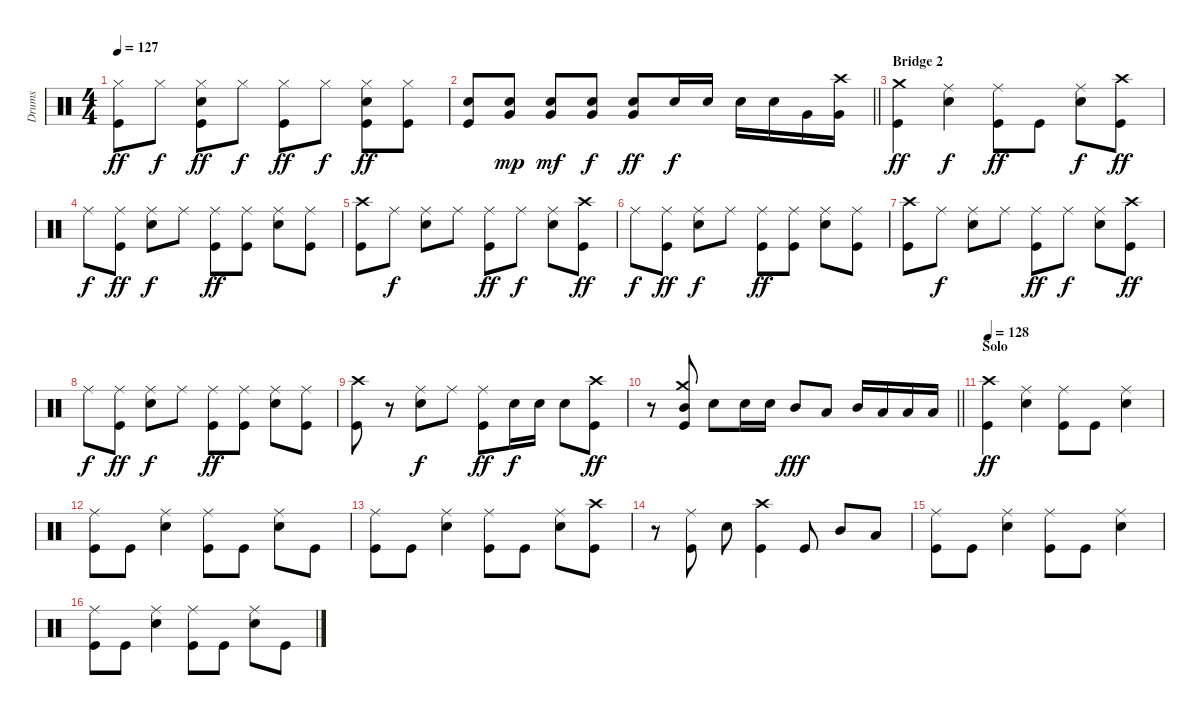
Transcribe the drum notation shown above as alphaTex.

\track ("Drums" "Drums") {instrument percussion}
\staff {score}
\articulation defaults
\ts (4 4)
\tempo 127
\clef neutral
\ks c
("Hi-Hat (closed)" "Kick (hit)").8{dy ff} "Hi-Hat (closed)".8{dy f} ("Hi-Hat (closed)" "Electric Snare (hit)" "Kick (hit)").8{dy ff} "Hi-Hat (closed)".8{dy f} ("Hi-Hat (closed)" "Kick (hit)").8{dy ff} "Hi-Hat (closed)".8{dy f} ("Hi-Hat (closed)" "Electric Snare (hit)" "Kick (hit)").8{dy ff} ("Hi-Hat (closed)" "Kick (hit)").8 |
\barLineRight lightlight
("Electric Snare (hit)" "Kick (hit)").8 ("Electric Snare (hit)" "Very Low Tom (hit)").8{dy mp} ("Electric Snare (hit)" "Very Low Tom (hit)").8{dy mf} ("Electric Snare (hit)" "Very Low Tom (hit)").8{dy f} ("Electric Snare (hit)" "Very Low Tom (hit)").8{dy ff} "Electric Snare (hit)".16{dy f} "Electric Snare (hit)".16 "Electric Snare (hit)".16 "Electric Snare (hit)".16 "Very Low Tom (hit)".16 ("Crash high (hit)" "Very Low Tom (hit)").16 |
\section ("" "Bridge 2")
("Crash medium (hit)" "Kick (hit)").4{dy ff} ("Ride (middle)" "Electric Snare (hit)").4{dy f} ("Ride (middle)" "Kick (hit)").8{dy ff} "Kick (hit)".8 ("Ride (middle)" "Electric Snare (hit)").8{dy f} ("Crash high (hit)" "Kick (hit)").8{dy ff} |
"Ride (middle)".8{dy f} ("Ride (middle)" "Kick (hit)").8{dy ff} ("Ride (middle)" "Electric Snare (hit)").8{dy f} "Ride (middle)".8 ("Ride (middle)" "Kick (hit)").8{dy ff} ("Ride (middle)" "Kick (hit)").8 ("Ride (middle)" "Electric Snare (hit)").8 ("Ride (middle)" "Kick (hit)").8 |
("Crash high (hit)" "Kick (hit)").8 "Ride (middle)".8{dy f} ("Ride (middle)" "Electric Snare (hit)").8 "Ride (middle)".8 ("Ride (middle)" "Kick (hit)").8{dy ff} "Ride (middle)".8{dy f} ("Ride (middle)" "Electric Snare (hit)").8 ("Crash high (hit)" "Kick (hit)").8{dy ff} |
"Ride (middle)".8{dy f} ("Ride (middle)" "Kick (hit)").8{dy ff} ("Ride (middle)" "Electric Snare (hit)").8{dy f} "Ride (middle)".8 ("Ride (middle)" "Kick (hit)").8{dy ff} ("Ride (middle)" "Kick (hit)").8 ("Ride (middle)" "Electric Snare (hit)").8 ("Ride (middle)" "Kick (hit)").8 |
("Crash high (hit)" "Kick (hit)").8 "Ride (middle)".8{dy f} ("Ride (middle)" "Electric Snare (hit)").8 "Ride (middle)".8 ("Ride (middle)" "Kick (hit)").8{dy ff} "Ride (middle)".8{dy f} ("Ride (middle)" "Electric Snare (hit)").8 ("Crash high (hit)" "Kick (hit)").8{dy ff} |
"Ride (middle)".8{dy f} ("Ride (middle)" "Kick (hit)").8{dy ff} ("Ride (middle)" "Electric Snare (hit)").8{dy f} "Ride (middle)".8 ("Ride (middle)" "Kick (hit)").8{dy ff} ("Ride (middle)" "Kick (hit)").8 ("Ride (middle)" "Electric Snare (hit)").8 ("Ride (middle)" "Kick (hit)").8 |
("Crash high (hit)" "Kick (hit)").8 r.8 ("Ride (middle)" "Electric Snare (hit)").8{dy f} "Ride (middle)".8 ("Ride (middle)" "Kick (hit)").8{dy ff} "Electric Snare (hit)".16{dy f} "Electric Snare (hit)".16 "Electric Snare (hit)".8 ("Crash high (hit)" "Kick (hit)").8{dy ff} |
\barLineRight lightlight
r.8 ("Crash medium (hit)" "Mid Tom (hit)" "Kick (hit)").8 "Electric Snare (hit)".8 "Electric Snare (hit)".16 "Electric Snare (hit)".16 "Mid Tom (hit)".8{dy fff} "Low Tom (hit)".8 "Mid Tom (hit)".16 "Low Tom (hit)".16 "Low Tom (hit)".16 "Low Tom (hit)".16 |
\section ("" "Solo")
\tempo 128
("Crash high (hit)" "Kick (hit)").4{dy ff} ("Ride (middle)" "Electric Snare (hit)").4 ("Ride (middle)" "Kick (hit)").8 "Kick (hit)".8 ("Ride (middle)" "Electric Snare (hit)").4 |
("Ride (middle)" "Kick (hit)").8 "Kick (hit)".8 ("Ride (middle)" "Electric Snare (hit)").4 ("Ride (middle)" "Kick (hit)").8 "Kick (hit)".8 ("Ride (middle)" "Electric Snare (hit)").8 "Kick (hit)".8 |
("Ride (middle)" "Kick (hit)").8 "Kick (hit)".8 ("Ride (middle)" "Electric Snare (hit)").4 ("Ride (middle)" "Kick (hit)").8 "Kick (hit)".8 ("Ride (middle)" "Electric Snare (hit)").8 ("Crash high (hit)" "Kick (hit)").8 |
r.8 ("Ride (middle)" "Kick (hit)").8 "Electric Snare (hit)".8 ("Crash high (hit)" "Kick (hit)").4 "Kick (hit)".8 "Mid Tom (hit)".8 "Low Tom (hit)".8 |
("Ride (middle)" "Kick (hit)").8 "Kick (hit)".8 ("Ride (middle)" "Electric Snare (hit)").4 ("Ride (middle)" "Kick (hit)").8 "Kick (hit)".8 ("Ride (middle)" "Electric Snare (hit)").4 |
("Ride (middle)" "Kick (hit)").8 "Kick (hit)".8 ("Ride (middle)" "Electric Snare (hit)").4 ("Ride (middle)" "Kick (hit)").8 "Kick (hit)".8 ("Ride (middle)" "Electric Snare (hit)").8 "Kick (hit)".8
